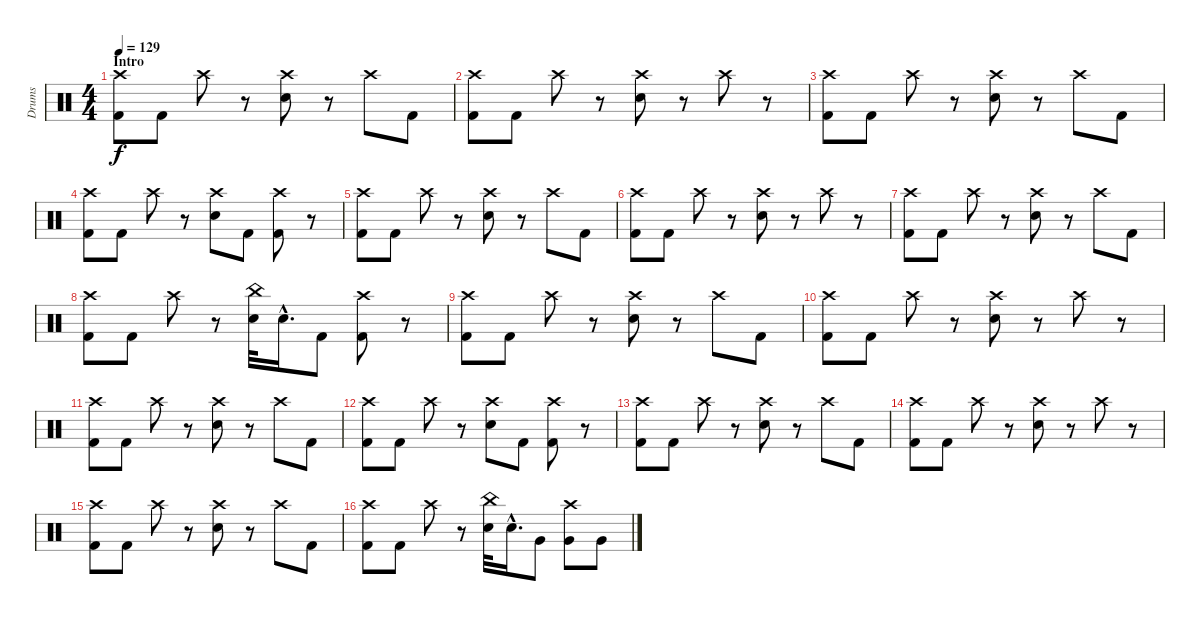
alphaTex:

\track ("Drums" "Drums") {instrument percussion}
\staff {score}
\articulation defaults
\ts (4 4)
\section ("" "Intro")
\tempo 129
\clef neutral
\ks c
("Crash high (hit)" "Kick (hit) 2").8{dy f} "Kick (hit) 2".8 "Crash high (hit)".8 r.8 ("Crash high (hit)" "Snare (hit) 2").8 r.8 "Crash high (hit)".8 "Kick (hit) 2".8 |
("Crash high (hit)" "Kick (hit) 2").8 "Kick (hit) 2".8 "Crash high (hit)".8 r.8 ("Crash high (hit)" "Snare (hit) 2").8 r.8 "Crash high (hit)".8 r.8 |
("Crash high (hit)" "Kick (hit) 2").8 "Kick (hit) 2".8 "Crash high (hit)".8 r.8 ("Crash high (hit)" "Snare (hit) 2").8 r.8 "Crash high (hit)".8 "Kick (hit) 2".8 |
("Crash high (hit)" "Kick (hit) 2").8 "Kick (hit) 2".8 "Crash high (hit)".8 r.8 ("Crash high (hit)" "Snare (hit) 2").8 "Kick (hit) 2".8 ("Crash high (hit)" "Kick (hit) 2").8 r.8 |
("Crash high (hit)" "Kick (hit) 2").8 "Kick (hit) 2".8 "Crash high (hit)".8 r.8 ("Crash high (hit)" "Snare (hit) 2").8 r.8 "Crash high (hit)".8 "Kick (hit) 2".8 |
("Crash high (hit)" "Kick (hit) 2").8 "Kick (hit) 2".8 "Crash high (hit)".8 r.8 ("Crash high (hit)" "Snare (hit) 2").8 r.8 "Crash high (hit)".8 r.8 |
("Crash high (hit)" "Kick (hit) 2").8 "Kick (hit) 2".8 "Crash high (hit)".8 r.8 ("Crash high (hit)" "Snare (hit) 2").8 r.8 "Crash high (hit)".8 "Kick (hit) 2".8 |
("Crash high (hit)" "Kick (hit) 2").8 "Kick (hit) 2".8 "Crash high (hit)".8 r.8 ("China (hit)" "Snare (hit) 2").32 "Snare (hit) 2"{hac}.16{d} "Kick (hit) 2".8 ("Crash high (hit)" "Kick (hit) 2").8 r.8 |
("Crash high (hit)" "Kick (hit) 2").8 "Kick (hit) 2".8 "Crash high (hit)".8 r.8 ("Crash high (hit)" "Snare (hit) 2").8 r.8 "Crash high (hit)".8 "Kick (hit) 2".8 |
("Crash high (hit)" "Kick (hit) 2").8 "Kick (hit) 2".8 "Crash high (hit)".8 r.8 ("Crash high (hit)" "Snare (hit) 2").8 r.8 "Crash high (hit)".8 r.8 |
("Crash high (hit)" "Kick (hit) 2").8 "Kick (hit) 2".8 "Crash high (hit)".8 r.8 ("Crash high (hit)" "Snare (hit) 2").8 r.8 "Crash high (hit)".8 "Kick (hit) 2".8 |
("Crash high (hit)" "Kick (hit) 2").8 "Kick (hit) 2".8 "Crash high (hit)".8 r.8 ("Crash high (hit)" "Snare (hit) 2").8 "Kick (hit) 2".8 ("Crash high (hit)" "Kick (hit) 2").8 r.8 |
("Crash high (hit)" "Kick (hit) 2").8 "Kick (hit) 2".8 "Crash high (hit)".8 r.8 ("Crash high (hit)" "Snare (hit) 2").8 r.8 "Crash high (hit)".8 "Kick (hit) 2".8 |
("Crash high (hit)" "Kick (hit) 2").8 "Kick (hit) 2".8 "Crash high (hit)".8 r.8 ("Crash high (hit)" "Snare (hit) 2").8 r.8 "Crash high (hit)".8 r.8 |
("Crash high (hit)" "Kick (hit) 2").8 "Kick (hit) 2".8 "Crash high (hit)".8 r.8 ("Crash high (hit)" "Snare (hit) 2").8 r.8 "Crash high (hit)".8 "Kick (hit) 2".8 |
("Crash high (hit)" "Kick (hit) 2").8 "Kick (hit) 2".8 "Crash high (hit)".8 r.8 ("China (hit)" "Snare (hit) 2").32 "Snare (hit) 2"{hac}.16{d} "Very Low Tom (hit)".8 ("Crash high (hit)" "Very Low Tom (hit)").8 "Very Low Tom (hit)".8
